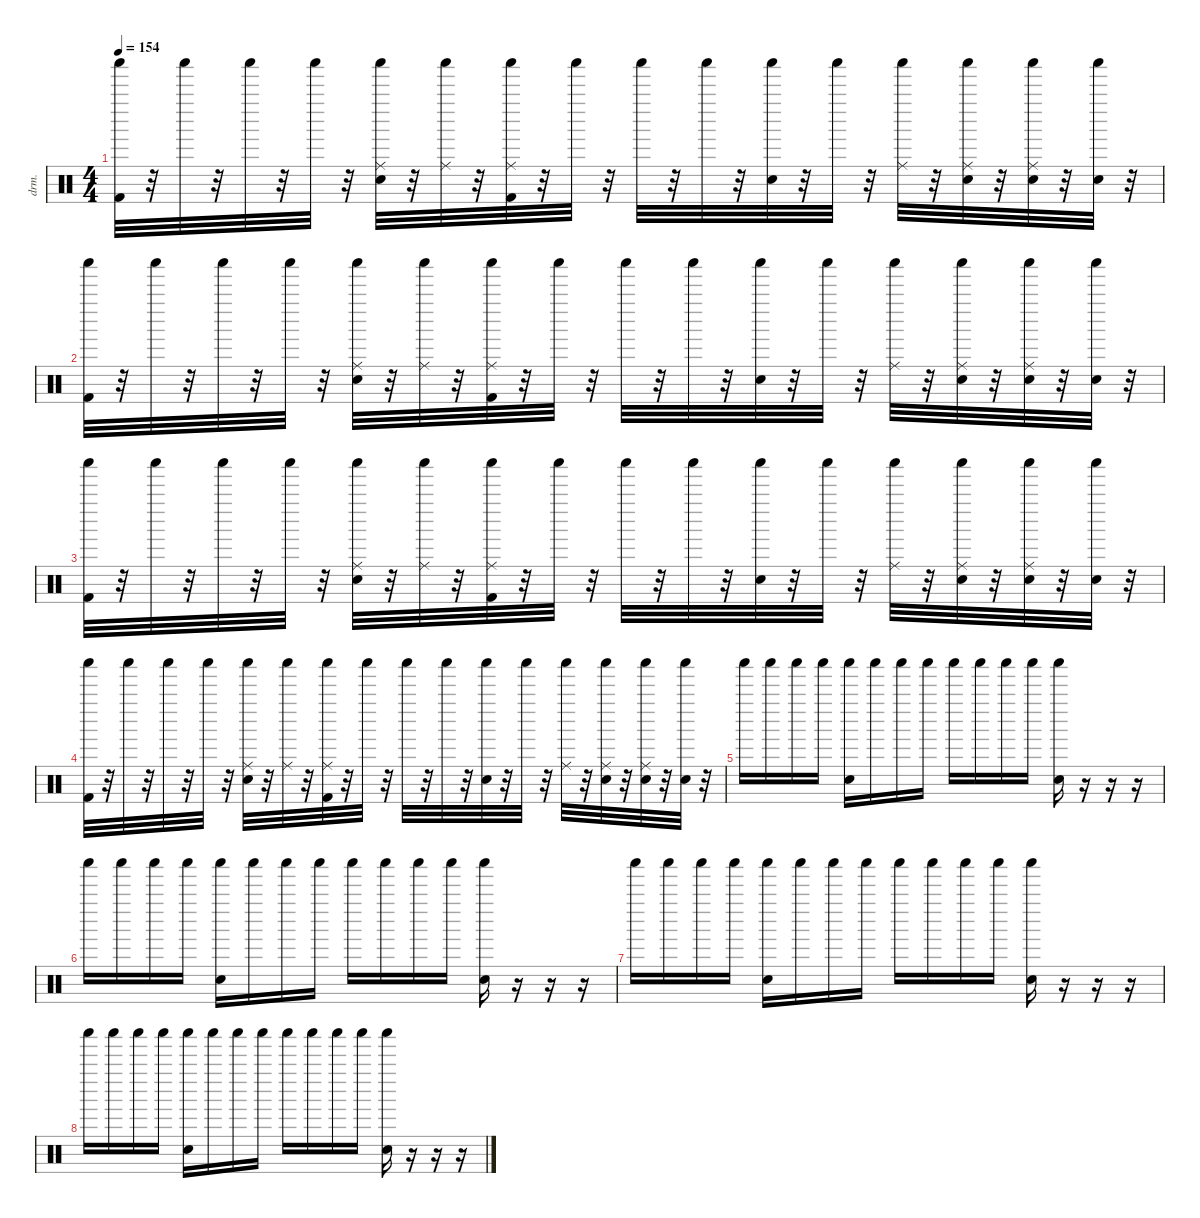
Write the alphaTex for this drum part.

\defaultSystemsLayout 4
\hideDynamics
\bracketExtendMode nobrackets
\otherSystemsTrackNameOrientation horizontal
\track ("Percussion" "drm.") {instrument percussion}
\staff {score}
\articulation defaults
\ts (4 4)
\tempo 154
\clef neutral
\ks c
("Shaker (hit)" "Kick (hit) 2").32{dy f beam Down} r.32{beam Down} "Shaker (hit)".32{beam Down} r.32{beam Down} "Shaker (hit)".32{beam Down} r.32{beam Down} "Shaker (hit)".32{beam Down} r.32{beam Down} ("Shaker (hit)" "Snare (hit) 2" "Ride (middle)").32{beam Down} r.32{beam Down} ("Shaker (hit)" "Ride (middle)").32{beam Down} r.32{beam Down} ("Shaker (hit)" "Kick (hit) 2" "Ride (middle)").32{beam Down} r.32{beam Down} "Shaker (hit)".32{beam Down} r.32{beam Down} "Shaker (hit)".32{beam Down} r.32{beam Down} "Shaker (hit)".32{beam Down} r.32{beam Down} ("Shaker (hit)" "Snare (hit) 2").32{beam Down} r.32{beam Down} "Shaker (hit)".32{beam Down} r.32{beam Down} ("Shaker (hit)" "Ride (middle)").32{beam Down} r.32{beam Down} ("Shaker (hit)" "Snare (hit) 2" "Ride (middle)").32{beam Down} r.32{beam Down} ("Shaker (hit)" "Snare (hit) 2" "Ride (middle)").32{beam Down} r.32{beam Down} ("Shaker (hit)" "Snare (hit) 2").32{beam Down} r.32{beam Down} |
("Shaker (hit)" "Kick (hit) 2").32{beam Down} r.32{beam Down} "Shaker (hit)".32{beam Down} r.32{beam Down} "Shaker (hit)".32{beam Down} r.32{beam Down} "Shaker (hit)".32{beam Down} r.32{beam Down} ("Shaker (hit)" "Snare (hit) 2" "Ride (middle)").32{beam Down} r.32{beam Down} ("Shaker (hit)" "Ride (middle)").32{beam Down} r.32{beam Down} ("Shaker (hit)" "Kick (hit) 2" "Ride (middle)").32{beam Down} r.32{beam Down} "Shaker (hit)".32{beam Down} r.32{beam Down} "Shaker (hit)".32{beam Down} r.32{beam Down} "Shaker (hit)".32{beam Down} r.32{beam Down} ("Shaker (hit)" "Snare (hit) 2").32{beam Down} r.32{beam Down} "Shaker (hit)".32{beam Down} r.32{beam Down} ("Shaker (hit)" "Ride (middle)").32{beam Down} r.32{beam Down} ("Shaker (hit)" "Snare (hit) 2" "Ride (middle)").32{beam Down} r.32{beam Down} ("Shaker (hit)" "Snare (hit) 2" "Ride (middle)").32{beam Down} r.32{beam Down} ("Shaker (hit)" "Snare (hit) 2").32{beam Down} r.32{beam Down} |
("Shaker (hit)" "Kick (hit) 2").32{beam Down} r.32{beam Down} "Shaker (hit)".32{beam Down} r.32{beam Down} "Shaker (hit)".32{beam Down} r.32{beam Down} "Shaker (hit)".32{beam Down} r.32{beam Down} ("Shaker (hit)" "Snare (hit) 2" "Ride (middle)").32{beam Down} r.32{beam Down} ("Shaker (hit)" "Ride (middle)").32{beam Down} r.32{beam Down} ("Shaker (hit)" "Kick (hit) 2" "Ride (middle)").32{beam Down} r.32{beam Down} "Shaker (hit)".32{beam Down} r.32{beam Down} "Shaker (hit)".32{beam Down} r.32{beam Down} "Shaker (hit)".32{beam Down} r.32{beam Down} ("Shaker (hit)" "Snare (hit) 2").32{beam Down} r.32{beam Down} "Shaker (hit)".32{beam Down} r.32{beam Down} ("Shaker (hit)" "Ride (middle)").32{beam Down} r.32{beam Down} ("Shaker (hit)" "Snare (hit) 2" "Ride (middle)").32{beam Down} r.32{beam Down} ("Shaker (hit)" "Snare (hit) 2" "Ride (middle)").32{beam Down} r.32{beam Down} ("Shaker (hit)" "Snare (hit) 2").32{beam Down} r.32{beam Down} |
("Shaker (hit)" "Kick (hit) 2").32{beam Down} r.32{beam Down} "Shaker (hit)".32{beam Down} r.32{beam Down} "Shaker (hit)".32{beam Down} r.32{beam Down} "Shaker (hit)".32{beam Down} r.32{beam Down} ("Shaker (hit)" "Snare (hit) 2" "Ride (middle)").32{beam Down} r.32{beam Down} ("Shaker (hit)" "Ride (middle)").32{beam Down} r.32{beam Down} ("Shaker (hit)" "Kick (hit) 2" "Ride (middle)").32{beam Down} r.32{beam Down} "Shaker (hit)".32{beam Down} r.32{beam Down} "Shaker (hit)".32{beam Down} r.32{beam Down} "Shaker (hit)".32{beam Down} r.32{beam Down} ("Shaker (hit)" "Snare (hit) 2").32{beam Down} r.32{beam Down} "Shaker (hit)".32{beam Down} r.32{beam Down} ("Shaker (hit)" "Ride (middle)").32{beam Down} r.32{beam Down} ("Shaker (hit)" "Snare (hit) 2" "Ride (middle)").32{beam Down} r.32{beam Down} ("Shaker (hit)" "Snare (hit) 2" "Ride (middle)").32{beam Down} r.32{beam Down} ("Shaker (hit)" "Snare (hit) 2").32{beam Down} r.32{beam Down} |
"Shaker (hit)".16{beam Down} "Shaker (hit)".16{beam Down} "Shaker (hit)".16{beam Down} "Shaker (hit)".16{beam Down} ("Shaker (hit)" "Snare (hit) 2").16{beam Down} "Shaker (hit)".16{beam Down} "Shaker (hit)".16{beam Down} "Shaker (hit)".16{beam Down} "Shaker (hit)".16{beam Down} "Shaker (hit)".16{beam Down} "Shaker (hit)".16{beam Down} "Shaker (hit)".16{beam Down} ("Shaker (hit)" "Snare (hit) 2").16{beam Down} r.16{beam Down} r.16{beam Down} r.16{beam Down} |
"Shaker (hit)".16{beam Down} "Shaker (hit)".16{beam Down} "Shaker (hit)".16{beam Down} "Shaker (hit)".16{beam Down} ("Shaker (hit)" "Snare (hit) 2").16{beam Down} "Shaker (hit)".16{beam Down} "Shaker (hit)".16{beam Down} "Shaker (hit)".16{beam Down} "Shaker (hit)".16{beam Down} "Shaker (hit)".16{beam Down} "Shaker (hit)".16{beam Down} "Shaker (hit)".16{beam Down} ("Shaker (hit)" "Snare (hit) 2").16{beam Down} r.16{beam Down} r.16{beam Down} r.16{beam Down} |
"Shaker (hit)".16{beam Down} "Shaker (hit)".16{beam Down} "Shaker (hit)".16{beam Down} "Shaker (hit)".16{beam Down} ("Shaker (hit)" "Snare (hit) 2").16{beam Down} "Shaker (hit)".16{beam Down} "Shaker (hit)".16{beam Down} "Shaker (hit)".16{beam Down} "Shaker (hit)".16{beam Down} "Shaker (hit)".16{beam Down} "Shaker (hit)".16{beam Down} "Shaker (hit)".16{beam Down} ("Shaker (hit)" "Snare (hit) 2").16{beam Down} r.16{beam Down} r.16{beam Down} r.16{beam Down} |
"Shaker (hit)".16{beam Down} "Shaker (hit)".16{beam Down} "Shaker (hit)".16{beam Down} "Shaker (hit)".16{beam Down} ("Shaker (hit)" "Snare (hit) 2").16{beam Down} "Shaker (hit)".16{beam Down} "Shaker (hit)".16{beam Down} "Shaker (hit)".16{beam Down} "Shaker (hit)".16{beam Down} "Shaker (hit)".16{beam Down} "Shaker (hit)".16{beam Down} "Shaker (hit)".16{beam Down} ("Shaker (hit)" "Snare (hit) 2").16{beam Down} r.16{beam Down} r.16{beam Down} r.16{beam Down}
